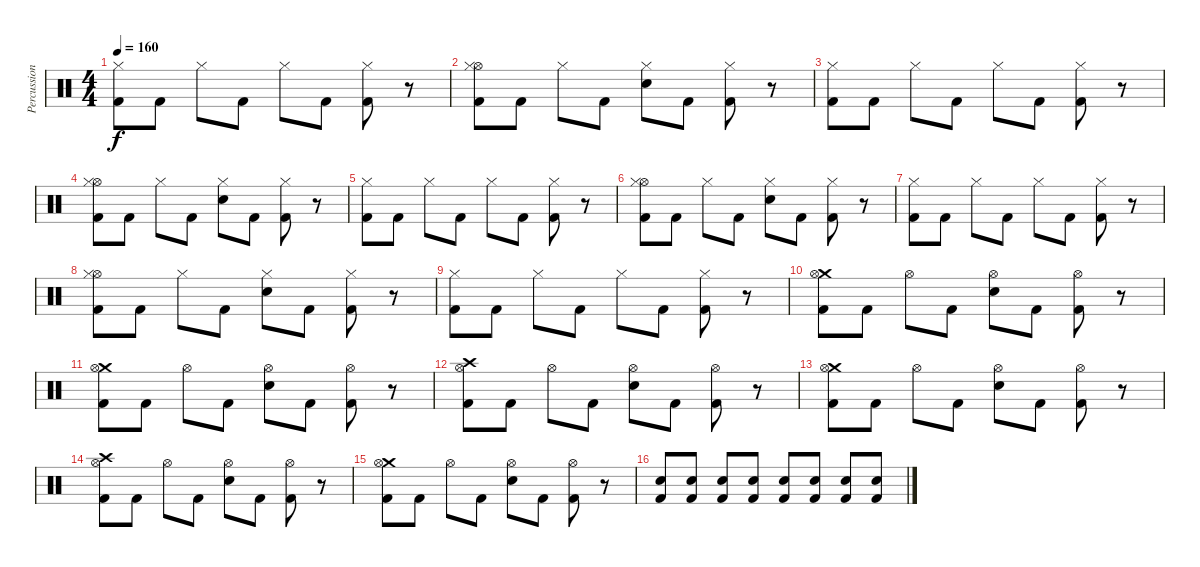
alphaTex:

\track ("Percussioni" "Percussion") {instrument percussion}
\staff {score}
\articulation defaults
\ts (4 4)
\tempo 160
\clef neutral
\ks c
("Hi-Hat (closed)" "Kick (hit) 2").8{dy f} "Kick (hit) 2".8 "Hi-Hat (closed)".8 "Kick (hit) 2".8 "Hi-Hat (closed)".8 "Kick (hit) 2".8 ("Hi-Hat (closed)" "Kick (hit) 2").8 r.8 |
("Hi-Hat (open)" "Hi-Hat (closed)" "Kick (hit) 2").8 "Kick (hit) 2".8 "Hi-Hat (closed)".8 "Kick (hit) 2".8 ("Hi-Hat (closed)" "Snare (hit) 2").8 "Kick (hit) 2".8 ("Hi-Hat (closed)" "Kick (hit) 2").8 r.8 |
("Hi-Hat (closed)" "Kick (hit) 2").8 "Kick (hit) 2".8 "Hi-Hat (closed)".8 "Kick (hit) 2".8 "Hi-Hat (closed)".8 "Kick (hit) 2".8 ("Hi-Hat (closed)" "Kick (hit) 2").8 r.8 |
("Hi-Hat (open)" "Hi-Hat (closed)" "Kick (hit) 2").8 "Kick (hit) 2".8 "Hi-Hat (closed)".8 "Kick (hit) 2".8 ("Hi-Hat (closed)" "Snare (hit) 2").8 "Kick (hit) 2".8 ("Hi-Hat (closed)" "Kick (hit) 2").8 r.8 |
("Hi-Hat (closed)" "Kick (hit) 2").8 "Kick (hit) 2".8 "Hi-Hat (closed)".8 "Kick (hit) 2".8 "Hi-Hat (closed)".8 "Kick (hit) 2".8 ("Hi-Hat (closed)" "Kick (hit) 2").8 r.8 |
("Hi-Hat (open)" "Hi-Hat (closed)" "Kick (hit) 2").8 "Kick (hit) 2".8 "Hi-Hat (closed)".8 "Kick (hit) 2".8 ("Hi-Hat (closed)" "Snare (hit) 2").8 "Kick (hit) 2".8 ("Hi-Hat (closed)" "Kick (hit) 2").8 r.8 |
("Hi-Hat (closed)" "Kick (hit) 2").8 "Kick (hit) 2".8 "Hi-Hat (closed)".8 "Kick (hit) 2".8 "Hi-Hat (closed)".8 "Kick (hit) 2".8 ("Hi-Hat (closed)" "Kick (hit) 2").8 r.8 |
("Hi-Hat (open)" "Hi-Hat (closed)" "Kick (hit) 2").8 "Kick (hit) 2".8 "Hi-Hat (closed)".8 "Kick (hit) 2".8 ("Hi-Hat (closed)" "Snare (hit) 2").8 "Kick (hit) 2".8 ("Hi-Hat (closed)" "Kick (hit) 2").8 r.8 |
("Hi-Hat (closed)" "Kick (hit) 2").8 "Kick (hit) 2".8 "Hi-Hat (closed)".8 "Kick (hit) 2".8 "Hi-Hat (closed)".8 "Kick (hit) 2".8 ("Hi-Hat (closed)" "Kick (hit) 2").8 r.8 |
("Crash medium (hit)" "Hi-Hat (open)" "Kick (hit) 2").8 "Kick (hit) 2".8 "Hi-Hat (open)".8 "Kick (hit) 2".8 ("Hi-Hat (open)" "Snare (hit) 2").8 "Kick (hit) 2".8 ("Hi-Hat (open)" "Kick (hit) 2").8 r.8 |
("Crash medium (hit)" "Hi-Hat (open)" "Kick (hit) 2").8 "Kick (hit) 2".8 "Hi-Hat (open)".8 "Kick (hit) 2".8 ("Hi-Hat (open)" "Snare (hit) 2").8 "Kick (hit) 2".8 ("Hi-Hat (open)" "Kick (hit) 2").8 r.8 |
("Crash high (hit)" "Hi-Hat (open)" "Kick (hit) 2").8 "Kick (hit) 2".8 "Hi-Hat (open)".8 "Kick (hit) 2".8 ("Hi-Hat (open)" "Snare (hit) 2").8 "Kick (hit) 2".8 ("Hi-Hat (open)" "Kick (hit) 2").8 r.8 |
("Crash medium (hit)" "Hi-Hat (open)" "Kick (hit) 2").8 "Kick (hit) 2".8 "Hi-Hat (open)".8 "Kick (hit) 2".8 ("Hi-Hat (open)" "Snare (hit) 2").8 "Kick (hit) 2".8 ("Hi-Hat (open)" "Kick (hit) 2").8 r.8 |
("Crash high (hit)" "Hi-Hat (open)" "Kick (hit) 2").8 "Kick (hit) 2".8 "Hi-Hat (open)".8 "Kick (hit) 2".8 ("Hi-Hat (open)" "Snare (hit) 2").8 "Kick (hit) 2".8 ("Hi-Hat (open)" "Kick (hit) 2").8 r.8 |
("Crash medium (hit)" "Hi-Hat (open)" "Kick (hit) 2").8 "Kick (hit) 2".8 "Hi-Hat (open)".8 "Kick (hit) 2".8 ("Hi-Hat (open)" "Snare (hit) 2").8 "Kick (hit) 2".8 ("Hi-Hat (open)" "Kick (hit) 2").8 r.8 |
("Snare (hit) 2" "Kick (hit) 2").8 ("Snare (hit) 2" "Kick (hit) 2").8 ("Snare (hit) 2" "Kick (hit) 2").8 ("Snare (hit) 2" "Kick (hit) 2").8 ("Snare (hit) 2" "Kick (hit) 2").8 ("Snare (hit) 2" "Kick (hit) 2").8 ("Snare (hit) 2" "Kick (hit) 2").8 ("Snare (hit) 2" "Kick (hit) 2").8
